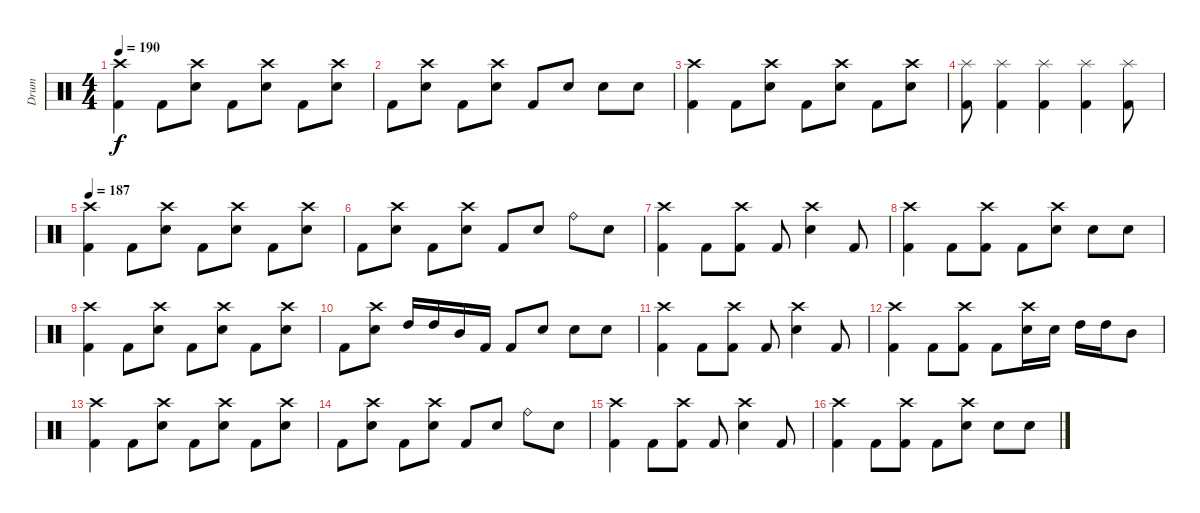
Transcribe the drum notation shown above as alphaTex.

\track ("Drum" "Drum") {instrument percussion}
\staff {score}
\articulation defaults
\ts (4 4)
\tempo 190
\clef neutral
\ks c
("Crash high (hit)" "Kick (hit) 2").4{dy f} "Kick (hit) 2".8 ("Crash high (hit)" "Electric Snare (hit)").8 "Kick (hit) 2".8 ("Crash high (hit)" "Electric Snare (hit)").8 "Kick (hit) 2".8 ("Crash high (hit)" "Electric Snare (hit)").8 |
"Kick (hit) 2".8 ("Crash high (hit)" "Electric Snare (hit)").8 "Kick (hit) 2".8 ("Crash high (hit)" "Electric Snare (hit)").8 "Kick (hit) 2".8 "Electric Snare (hit)".8 "Electric Snare (hit)".8 "Electric Snare (hit)".8 |
("Crash high (hit)" "Kick (hit) 2").4 "Kick (hit) 2".8 ("Crash high (hit)" "Electric Snare (hit)").8 "Kick (hit) 2".8 ("Crash high (hit)" "Electric Snare (hit)").8 "Kick (hit) 2".8 ("Crash high (hit)" "Electric Snare (hit)").8 |
("Splash (hit)" "Kick (hit) 2").8 ("Splash (hit)" "Kick (hit) 2").4 ("Splash (hit)" "Kick (hit) 2").4 ("Splash (hit)" "Kick (hit) 2").4 ("Splash (hit)" "Kick (hit) 2").8 |
\tempo 187
("Crash high (hit)" "Kick (hit) 2").4 "Kick (hit) 2".8 ("Crash high (hit)" "Electric Snare (hit)").8 "Kick (hit) 2".8 ("Crash high (hit)" "Electric Snare (hit)").8 "Kick (hit) 2".8 ("Crash high (hit)" "Electric Snare (hit)").8 |
"Kick (hit) 2".8 ("Crash high (hit)" "Electric Snare (hit)").8 "Kick (hit) 2".8 ("Crash high (hit)" "Electric Snare (hit)").8 "Kick (hit) 2".8 "Electric Snare (hit)".8 "Ride (bell)".8 "Electric Snare (hit)".8 |
("Crash high (hit)" "Kick (hit) 2").4 "Kick (hit) 2".8 ("Crash high (hit)" "Kick (hit) 2").8 "Kick (hit) 2".8 ("Crash high (hit)" "Electric Snare (hit)").4 "Kick (hit) 2".8 |
("Crash high (hit)" "Kick (hit) 2").4 "Kick (hit) 2".8 ("Crash high (hit)" "Kick (hit) 2").8 "Kick (hit) 2".8 ("Crash high (hit)" "Electric Snare (hit)").8 "Electric Snare (hit)".8 "Electric Snare (hit)".8 |
("Crash high (hit)" "Kick (hit) 2").4 "Kick (hit) 2".8 ("Crash high (hit)" "Electric Snare (hit)").8 "Kick (hit) 2".8 ("Crash high (hit)" "Electric Snare (hit)").8 "Kick (hit) 2".8 ("Crash high (hit)" "Electric Snare (hit)").8 |
"Kick (hit) 2".8 ("Crash high (hit)" "Electric Snare (hit)").8 "High Tom (hit)".16 "High Tom (hit)".16 "Mid Tom (hit)".16 "Kick (hit) 2".16 "Kick (hit) 2".8 "Electric Snare (hit)".8 "Electric Snare (hit)".8 "Electric Snare (hit)".8 |
("Crash high (hit)" "Kick (hit) 2").4 "Kick (hit) 2".8 ("Crash high (hit)" "Kick (hit) 2").8 "Kick (hit) 2".8 ("Crash high (hit)" "Electric Snare (hit)").4 "Kick (hit) 2".8 |
("Crash high (hit)" "Kick (hit) 2").4 "Kick (hit) 2".8 ("Crash high (hit)" "Kick (hit) 2").8 "Kick (hit) 2".8 ("Crash high (hit)" "Electric Snare (hit)").16 "Electric Snare (hit)".16 "High Tom (hit)".16 "High Tom (hit)".16 "Mid Tom (hit)".8 |
("Crash high (hit)" "Kick (hit) 2").4 "Kick (hit) 2".8 ("Crash high (hit)" "Electric Snare (hit)").8 "Kick (hit) 2".8 ("Crash high (hit)" "Electric Snare (hit)").8 "Kick (hit) 2".8 ("Crash high (hit)" "Electric Snare (hit)").8 |
"Kick (hit) 2".8 ("Crash high (hit)" "Electric Snare (hit)").8 "Kick (hit) 2".8 ("Crash high (hit)" "Electric Snare (hit)").8 "Kick (hit) 2".8 "Electric Snare (hit)".8 "Ride (bell)".8 "Electric Snare (hit)".8 |
("Crash high (hit)" "Kick (hit) 2").4 "Kick (hit) 2".8 ("Crash high (hit)" "Kick (hit) 2").8 "Kick (hit) 2".8 ("Crash high (hit)" "Electric Snare (hit)").4 "Kick (hit) 2".8 |
("Crash high (hit)" "Kick (hit) 2").4 "Kick (hit) 2".8 ("Crash high (hit)" "Kick (hit) 2").8 "Kick (hit) 2".8 ("Crash high (hit)" "Electric Snare (hit)").8 "Electric Snare (hit)".8 "Electric Snare (hit)".8
